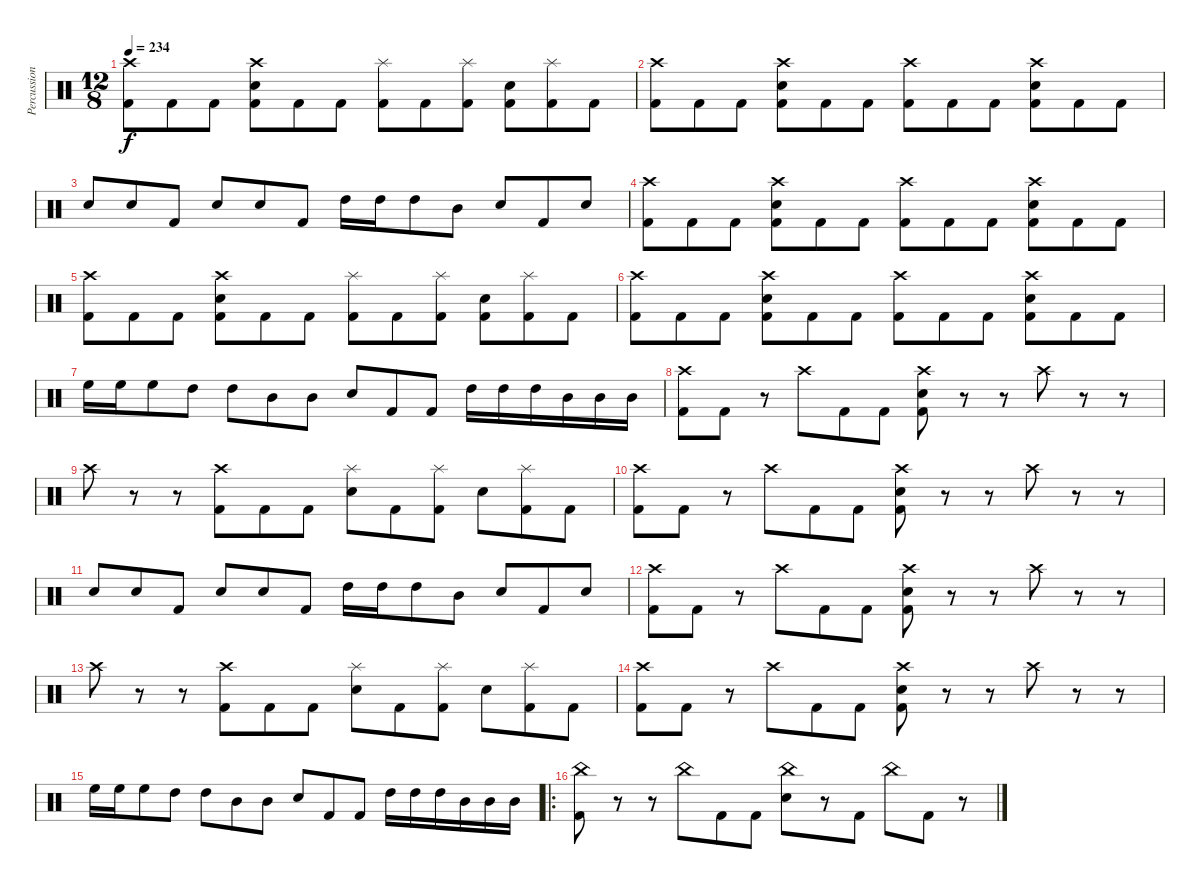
\track ("Percussion" "Percussion") {instrument percussion}
\staff {score}
\articulation defaults
\ts (12 8)
\tempo 234
\clef neutral
\ks c
("Crash high (hit)" "Kick (hit) 2").8{dy f} "Kick (hit) 2".8 "Kick (hit) 2".8 ("Crash high (hit)" "Electric Snare (hit)" "Kick (hit) 2").8 "Kick (hit) 2".8 "Kick (hit) 2".8 ("Splash (hit)" "Kick (hit) 2").8 "Kick (hit) 2".8 ("Splash (hit)" "Kick (hit) 2").8 ("Electric Snare (hit)" "Kick (hit) 2").8 ("Splash (hit)" "Kick (hit) 2").8 "Kick (hit) 2".8 |
("Crash high (hit)" "Kick (hit) 2").8 "Kick (hit) 2".8 "Kick (hit) 2".8 ("Crash high (hit)" "Electric Snare (hit)" "Kick (hit) 2").8 "Kick (hit) 2".8 "Kick (hit) 2".8 ("Crash high (hit)" "Kick (hit) 2").8 "Kick (hit) 2".8 "Kick (hit) 2".8 ("Crash high (hit)" "Electric Snare (hit)" "Kick (hit) 2").8 "Kick (hit) 2".8 "Kick (hit) 2".8 |
"Electric Snare (hit)".8 "Electric Snare (hit)".8 "Kick (hit) 2".8 "Electric Snare (hit)".8 "Electric Snare (hit)".8 "Kick (hit) 2".8 "High Tom (hit)".16 "High Tom (hit)".16 "High Tom (hit)".8 "Mid Tom (hit)".8 "Electric Snare (hit)".8 "Kick (hit) 2".8 "Electric Snare (hit)".8 |
("Crash high (hit)" "Kick (hit) 2").8 "Kick (hit) 2".8 "Kick (hit) 2".8 ("Crash high (hit)" "Electric Snare (hit)" "Kick (hit) 2").8 "Kick (hit) 2".8 "Kick (hit) 2".8 ("Crash high (hit)" "Kick (hit) 2").8 "Kick (hit) 2".8 "Kick (hit) 2".8 ("Crash high (hit)" "Electric Snare (hit)" "Kick (hit) 2").8 "Kick (hit) 2".8 "Kick (hit) 2".8 |
("Crash high (hit)" "Kick (hit) 2").8 "Kick (hit) 2".8 "Kick (hit) 2".8 ("Crash high (hit)" "Electric Snare (hit)" "Kick (hit) 2").8 "Kick (hit) 2".8 "Kick (hit) 2".8 ("Splash (hit)" "Kick (hit) 2").8 "Kick (hit) 2".8 ("Splash (hit)" "Kick (hit) 2").8 ("Electric Snare (hit)" "Kick (hit) 2").8 ("Splash (hit)" "Kick (hit) 2").8 "Kick (hit) 2".8 |
("Crash high (hit)" "Kick (hit) 2").8 "Kick (hit) 2".8 "Kick (hit) 2".8 ("Crash high (hit)" "Electric Snare (hit)" "Kick (hit) 2").8 "Kick (hit) 2".8 "Kick (hit) 2".8 ("Crash high (hit)" "Kick (hit) 2").8 "Kick (hit) 2".8 "Kick (hit) 2".8 ("Crash high (hit)" "Electric Snare (hit)" "Kick (hit) 2").8 "Kick (hit) 2".8 "Kick (hit) 2".8 |
"High Floor Tom (hit)".16 "High Floor Tom (hit)".16 "High Floor Tom (hit)".8 "High Tom (hit)".8 "High Tom (hit)".8 "Mid Tom (hit)".8 "Mid Tom (hit)".8 "Electric Snare (hit)".8 "Kick (hit) 2".8 "Kick (hit) 2".8 "High Tom (hit)".16 "High Tom (hit)".16 "High Tom (hit)".16 "Mid Tom (hit)".16 "Mid Tom (hit)".16 "Mid Tom (hit)".16 |
("Crash high (hit)" "Kick (hit) 2").8 "Kick (hit) 2".8 r.8 "Crash high (hit)".8 "Kick (hit) 2".8 "Kick (hit) 2".8 ("Crash high (hit)" "Electric Snare (hit)" "Kick (hit) 2").8 r.8 r.8 "Crash high (hit)".8 r.8 r.8 |
"Crash high (hit)".8 r.8 r.8 ("Crash high (hit)" "Kick (hit) 2").8 "Kick (hit) 2".8 "Kick (hit) 2".8 ("Splash (hit)" "Electric Snare (hit)").8 "Kick (hit) 2".8 ("Splash (hit)" "Kick (hit) 2").8 "Electric Snare (hit)".8 ("Splash (hit)" "Kick (hit) 2").8 "Kick (hit) 2".8 |
("Crash high (hit)" "Kick (hit) 2").8 "Kick (hit) 2".8 r.8 "Crash high (hit)".8 "Kick (hit) 2".8 "Kick (hit) 2".8 ("Crash high (hit)" "Electric Snare (hit)" "Kick (hit) 2").8 r.8 r.8 "Crash high (hit)".8 r.8 r.8 |
"Electric Snare (hit)".8 "Electric Snare (hit)".8 "Kick (hit) 2".8 "Electric Snare (hit)".8 "Electric Snare (hit)".8 "Kick (hit) 2".8 "High Tom (hit)".16 "High Tom (hit)".16 "High Tom (hit)".8 "Mid Tom (hit)".8 "Electric Snare (hit)".8 "Kick (hit) 2".8 "Electric Snare (hit)".8 |
("Crash high (hit)" "Kick (hit) 2").8 "Kick (hit) 2".8 r.8 "Crash high (hit)".8 "Kick (hit) 2".8 "Kick (hit) 2".8 ("Crash high (hit)" "Electric Snare (hit)" "Kick (hit) 2").8 r.8 r.8 "Crash high (hit)".8 r.8 r.8 |
"Crash high (hit)".8 r.8 r.8 ("Crash high (hit)" "Kick (hit) 2").8 "Kick (hit) 2".8 "Kick (hit) 2".8 ("Splash (hit)" "Electric Snare (hit)").8 "Kick (hit) 2".8 ("Splash (hit)" "Kick (hit) 2").8 "Electric Snare (hit)".8 ("Splash (hit)" "Kick (hit) 2").8 "Kick (hit) 2".8 |
("Crash high (hit)" "Kick (hit) 2").8 "Kick (hit) 2".8 r.8 "Crash high (hit)".8 "Kick (hit) 2".8 "Kick (hit) 2".8 ("Crash high (hit)" "Electric Snare (hit)" "Kick (hit) 2").8 r.8 r.8 "Crash high (hit)".8 r.8 r.8 |
"High Floor Tom (hit)".16 "High Floor Tom (hit)".16 "High Floor Tom (hit)".8 "High Tom (hit)".8 "High Tom (hit)".8 "Mid Tom (hit)".8 "Mid Tom (hit)".8 "Electric Snare (hit)".8 "Kick (hit) 2".8 "Kick (hit) 2".8 "High Tom (hit)".16 "High Tom (hit)".16 "High Tom (hit)".16 "Mid Tom (hit)".16 "Mid Tom (hit)".16 "Mid Tom (hit)".16 |
\ro
("China (hit)" "Kick (hit) 2").8 r.8 r.8 "China (hit)".8 "Kick (hit) 2".8 "Kick (hit) 2".8 ("China (hit)" "Electric Snare (hit)").8 r.8 "Kick (hit) 2".8 "China (hit)".8 "Kick (hit) 2".8 r.8
